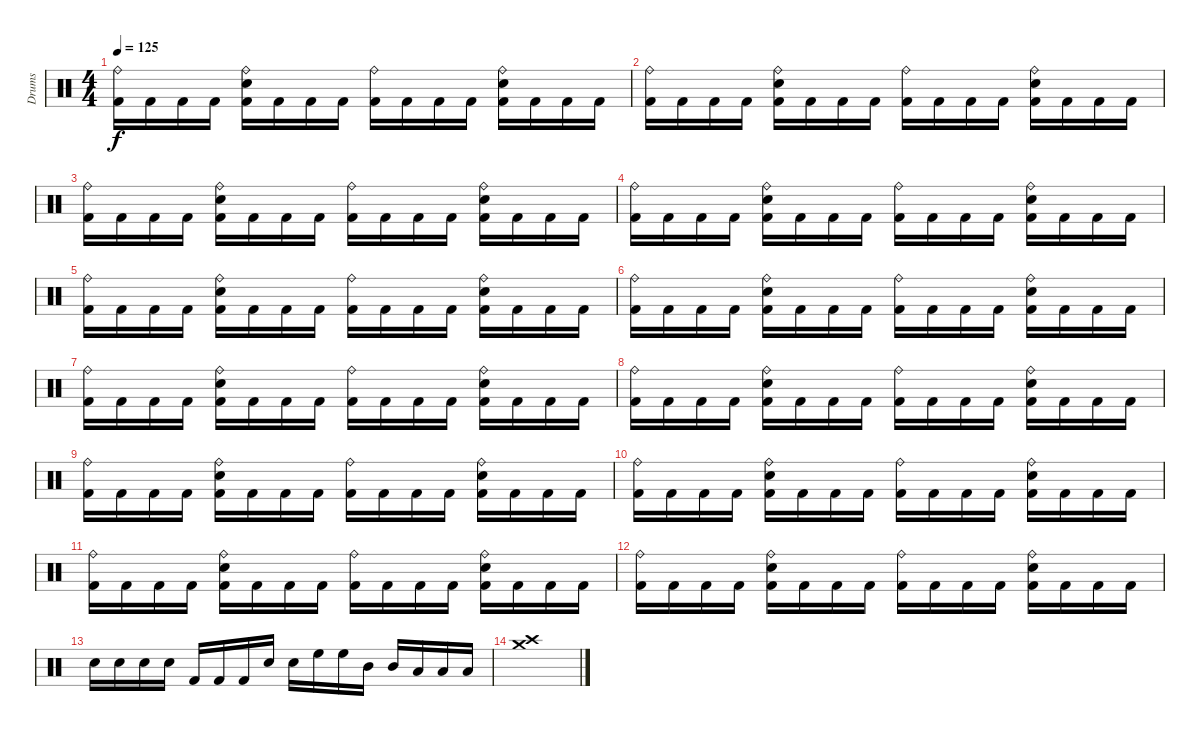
\track ("Drums" "Drums") {instrument percussion}
\staff {score}
\articulation defaults
\ts (4 4)
\tempo 125
\clef neutral
\ks c
("Ride (bell)" "Kick (hit) 2").16{dy f} "Kick (hit) 2".16 "Kick (hit) 2".16 "Kick (hit) 2".16 ("Ride (bell)" "Electric Snare (hit)" "Kick (hit) 2").16 "Kick (hit) 2".16 "Kick (hit) 2".16 "Kick (hit) 2".16 ("Ride (bell)" "Kick (hit) 2").16 "Kick (hit) 2".16 "Kick (hit) 2".16 "Kick (hit) 2".16 ("Ride (bell)" "Electric Snare (hit)" "Kick (hit) 2").16 "Kick (hit) 2".16 "Kick (hit) 2".16 "Kick (hit) 2".16 |
("Ride (bell)" "Kick (hit) 2").16 "Kick (hit) 2".16 "Kick (hit) 2".16 "Kick (hit) 2".16 ("Ride (bell)" "Electric Snare (hit)" "Kick (hit) 2").16 "Kick (hit) 2".16 "Kick (hit) 2".16 "Kick (hit) 2".16 ("Ride (bell)" "Kick (hit) 2").16 "Kick (hit) 2".16 "Kick (hit) 2".16 "Kick (hit) 2".16 ("Ride (bell)" "Electric Snare (hit)" "Kick (hit) 2").16 "Kick (hit) 2".16 "Kick (hit) 2".16 "Kick (hit) 2".16 |
("Ride (bell)" "Kick (hit) 2").16 "Kick (hit) 2".16 "Kick (hit) 2".16 "Kick (hit) 2".16 ("Ride (bell)" "Electric Snare (hit)" "Kick (hit) 2").16 "Kick (hit) 2".16 "Kick (hit) 2".16 "Kick (hit) 2".16 ("Ride (bell)" "Kick (hit) 2").16 "Kick (hit) 2".16 "Kick (hit) 2".16 "Kick (hit) 2".16 ("Ride (bell)" "Electric Snare (hit)" "Kick (hit) 2").16 "Kick (hit) 2".16 "Kick (hit) 2".16 "Kick (hit) 2".16 |
("Ride (bell)" "Kick (hit) 2").16 "Kick (hit) 2".16 "Kick (hit) 2".16 "Kick (hit) 2".16 ("Ride (bell)" "Electric Snare (hit)" "Kick (hit) 2").16 "Kick (hit) 2".16 "Kick (hit) 2".16 "Kick (hit) 2".16 ("Ride (bell)" "Kick (hit) 2").16 "Kick (hit) 2".16 "Kick (hit) 2".16 "Kick (hit) 2".16 ("Ride (bell)" "Electric Snare (hit)" "Kick (hit) 2").16 "Kick (hit) 2".16 "Kick (hit) 2".16 "Kick (hit) 2".16 |
("Ride (bell)" "Kick (hit) 2").16 "Kick (hit) 2".16 "Kick (hit) 2".16 "Kick (hit) 2".16 ("Ride (bell)" "Electric Snare (hit)" "Kick (hit) 2").16 "Kick (hit) 2".16 "Kick (hit) 2".16 "Kick (hit) 2".16 ("Ride (bell)" "Kick (hit) 2").16 "Kick (hit) 2".16 "Kick (hit) 2".16 "Kick (hit) 2".16 ("Ride (bell)" "Electric Snare (hit)" "Kick (hit) 2").16 "Kick (hit) 2".16 "Kick (hit) 2".16 "Kick (hit) 2".16 |
("Ride (bell)" "Kick (hit) 2").16 "Kick (hit) 2".16 "Kick (hit) 2".16 "Kick (hit) 2".16 ("Ride (bell)" "Electric Snare (hit)" "Kick (hit) 2").16 "Kick (hit) 2".16 "Kick (hit) 2".16 "Kick (hit) 2".16 ("Ride (bell)" "Kick (hit) 2").16 "Kick (hit) 2".16 "Kick (hit) 2".16 "Kick (hit) 2".16 ("Ride (bell)" "Electric Snare (hit)" "Kick (hit) 2").16 "Kick (hit) 2".16 "Kick (hit) 2".16 "Kick (hit) 2".16 |
("Ride (bell)" "Kick (hit) 2").16 "Kick (hit) 2".16 "Kick (hit) 2".16 "Kick (hit) 2".16 ("Ride (bell)" "Electric Snare (hit)" "Kick (hit) 2").16 "Kick (hit) 2".16 "Kick (hit) 2".16 "Kick (hit) 2".16 ("Ride (bell)" "Kick (hit) 2").16 "Kick (hit) 2".16 "Kick (hit) 2".16 "Kick (hit) 2".16 ("Ride (bell)" "Electric Snare (hit)" "Kick (hit) 2").16 "Kick (hit) 2".16 "Kick (hit) 2".16 "Kick (hit) 2".16 |
("Ride (bell)" "Kick (hit) 2").16 "Kick (hit) 2".16 "Kick (hit) 2".16 "Kick (hit) 2".16 ("Ride (bell)" "Electric Snare (hit)" "Kick (hit) 2").16 "Kick (hit) 2".16 "Kick (hit) 2".16 "Kick (hit) 2".16 ("Ride (bell)" "Kick (hit) 2").16 "Kick (hit) 2".16 "Kick (hit) 2".16 "Kick (hit) 2".16 ("Ride (bell)" "Electric Snare (hit)" "Kick (hit) 2").16 "Kick (hit) 2".16 "Kick (hit) 2".16 "Kick (hit) 2".16 |
("Ride (bell)" "Kick (hit) 2").16 "Kick (hit) 2".16 "Kick (hit) 2".16 "Kick (hit) 2".16 ("Ride (bell)" "Electric Snare (hit)" "Kick (hit) 2").16 "Kick (hit) 2".16 "Kick (hit) 2".16 "Kick (hit) 2".16 ("Ride (bell)" "Kick (hit) 2").16 "Kick (hit) 2".16 "Kick (hit) 2".16 "Kick (hit) 2".16 ("Ride (bell)" "Electric Snare (hit)" "Kick (hit) 2").16 "Kick (hit) 2".16 "Kick (hit) 2".16 "Kick (hit) 2".16 |
("Ride (bell)" "Kick (hit) 2").16 "Kick (hit) 2".16 "Kick (hit) 2".16 "Kick (hit) 2".16 ("Ride (bell)" "Electric Snare (hit)" "Kick (hit) 2").16 "Kick (hit) 2".16 "Kick (hit) 2".16 "Kick (hit) 2".16 ("Ride (bell)" "Kick (hit) 2").16 "Kick (hit) 2".16 "Kick (hit) 2".16 "Kick (hit) 2".16 ("Ride (bell)" "Electric Snare (hit)" "Kick (hit) 2").16 "Kick (hit) 2".16 "Kick (hit) 2".16 "Kick (hit) 2".16 |
("Ride (bell)" "Kick (hit) 2").16 "Kick (hit) 2".16 "Kick (hit) 2".16 "Kick (hit) 2".16 ("Ride (bell)" "Electric Snare (hit)" "Kick (hit) 2").16 "Kick (hit) 2".16 "Kick (hit) 2".16 "Kick (hit) 2".16 ("Ride (bell)" "Kick (hit) 2").16 "Kick (hit) 2".16 "Kick (hit) 2".16 "Kick (hit) 2".16 ("Ride (bell)" "Electric Snare (hit)" "Kick (hit) 2").16 "Kick (hit) 2".16 "Kick (hit) 2".16 "Kick (hit) 2".16 |
("Ride (bell)" "Kick (hit) 2").16 "Kick (hit) 2".16 "Kick (hit) 2".16 "Kick (hit) 2".16 ("Ride (bell)" "Electric Snare (hit)" "Kick (hit) 2").16 "Kick (hit) 2".16 "Kick (hit) 2".16 "Kick (hit) 2".16 ("Ride (bell)" "Kick (hit) 2").16 "Kick (hit) 2".16 "Kick (hit) 2".16 "Kick (hit) 2".16 ("Ride (bell)" "Electric Snare (hit)" "Kick (hit) 2").16 "Kick (hit) 2".16 "Kick (hit) 2".16 "Kick (hit) 2".16 |
"Electric Snare (hit)".16 "Electric Snare (hit)".16 "Electric Snare (hit)".16 "Electric Snare (hit)".16 "Kick (hit) 2".16 "Kick (hit) 2".16 "Kick (hit) 2".16 "Electric Snare (hit)".16 "Electric Snare (hit)".16 "High Floor Tom (hit)".16 "High Floor Tom (hit)".16 "Mid Tom (hit)".16 "Mid Tom (hit)".16 "Low Tom (hit)".16 "Low Floor Tom (hit)".16 "Low Floor Tom (hit)".16 |
("Crash high (hit)" "Crash medium (hit)").1
